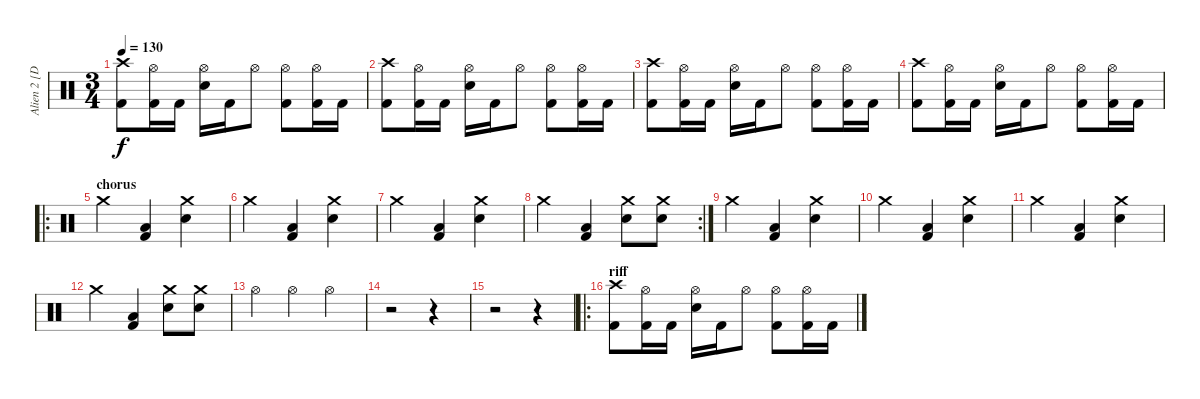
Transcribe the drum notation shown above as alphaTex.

\track ("Alien 2 [Drums]" "Alien 2 [D") {instrument percussion}
\staff {score}
\articulation defaults
\ts (3 4)
\tempo 130
\clef neutral
\ks c
("Crash high (hit)" "Kick (hit) 2").8{dy f} ("Hi-Hat (open)" "Kick (hit) 2").16 "Kick (hit) 2".16 ("Hi-Hat (open)" "Electric Snare (hit)").16 "Kick (hit) 2".16 "Hi-Hat (open)".8 ("Hi-Hat (open)" "Kick (hit) 2").8 ("Hi-Hat (open)" "Kick (hit) 2").16 "Kick (hit) 2".16 |
("Crash high (hit)" "Kick (hit) 2").8 ("Hi-Hat (open)" "Kick (hit) 2").16 "Kick (hit) 2".16 ("Hi-Hat (open)" "Electric Snare (hit)").16 "Kick (hit) 2".16 "Hi-Hat (open)".8 ("Hi-Hat (open)" "Kick (hit) 2").8 ("Hi-Hat (open)" "Kick (hit) 2").16 "Kick (hit) 2".16 |
("Crash high (hit)" "Kick (hit) 2").8 ("Hi-Hat (open)" "Kick (hit) 2").16 "Kick (hit) 2".16 ("Hi-Hat (open)" "Electric Snare (hit)").16 "Kick (hit) 2".16 "Hi-Hat (open)".8 ("Hi-Hat (open)" "Kick (hit) 2").8 ("Hi-Hat (open)" "Kick (hit) 2").16 "Kick (hit) 2".16 |
("Crash high (hit)" "Kick (hit) 2").8 ("Hi-Hat (open)" "Kick (hit) 2").16 "Kick (hit) 2".16 ("Hi-Hat (open)" "Electric Snare (hit)").16 "Kick (hit) 2".16 "Hi-Hat (open)".8 ("Hi-Hat (open)" "Kick (hit) 2").8 ("Hi-Hat (open)" "Kick (hit) 2").16 "Kick (hit) 2".16 |
\ro
\section ("" "chorus")
"Crash medium (hit)".4 ("Low Tom (hit)" "Kick (hit) 2").4 ("Crash medium (hit)" "Electric Snare (hit)").4 |
"Crash medium (hit)".4 ("Low Tom (hit)" "Kick (hit) 2").4 ("Crash medium (hit)" "Electric Snare (hit)").4 |
"Crash medium (hit)".4 ("Low Tom (hit)" "Kick (hit) 2").4 ("Crash medium (hit)" "Electric Snare (hit)").4 |
\rc 2 "Crash medium (hit)".4
("Low Tom (hit)" "Kick (hit) 2").4 ("Crash medium (hit)" "Electric Snare (hit)").8 ("Crash medium (hit)" "Electric Snare (hit)").8 |
"Crash medium (hit)".4 ("Low Tom (hit)" "Kick (hit) 2").4 ("Crash medium (hit)" "Electric Snare (hit)").4 |
"Crash medium (hit)".4 ("Low Tom (hit)" "Kick (hit) 2").4 ("Crash medium (hit)" "Electric Snare (hit)").4 |
"Crash medium (hit)".4 ("Low Tom (hit)" "Kick (hit) 2").4 ("Crash medium (hit)" "Electric Snare (hit)").4 |
"Crash medium (hit)".4 ("Low Tom (hit)" "Kick (hit) 2").4 ("Crash medium (hit)" "Electric Snare (hit)").8 ("Crash medium (hit)" "Electric Snare (hit)").8 |
"Hi-Hat (open)".4 "Hi-Hat (open)".4 "Hi-Hat (open)".4 |
r.2 r.4 |
r.2 r.4 |
\ro
\section ("" "riff")
("Crash high (hit)" "Kick (hit) 2").8 ("Hi-Hat (open)" "Kick (hit) 2").16 "Kick (hit) 2".16 ("Hi-Hat (open)" "Electric Snare (hit)").16 "Kick (hit) 2".16 "Hi-Hat (open)".8 ("Hi-Hat (open)" "Kick (hit) 2").8 ("Hi-Hat (open)" "Kick (hit) 2").16 "Kick (hit) 2".16
